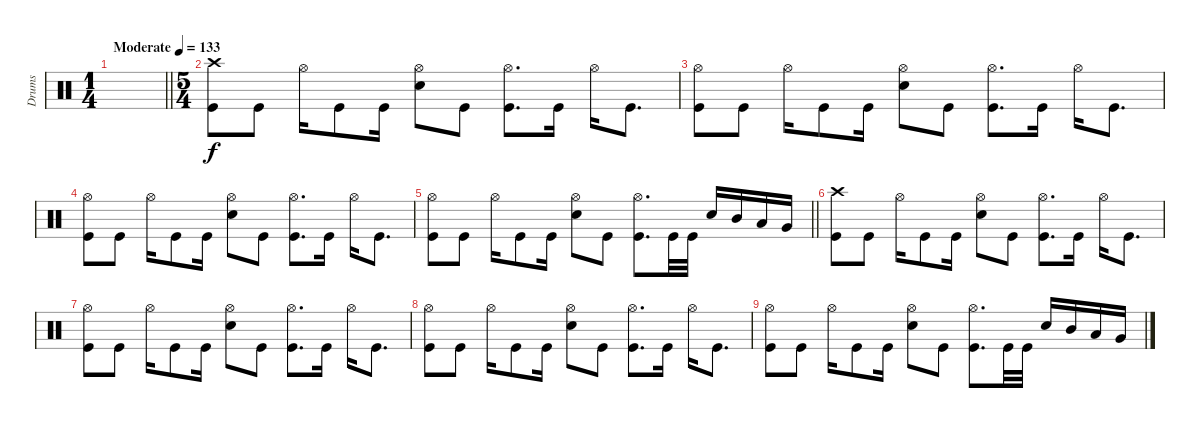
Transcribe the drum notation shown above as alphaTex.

\track ("Drums" "Drums") {instrument percussion}
\staff
\articulation defaults
\ts (1 4)
\tempo (133 "Moderate")
\clef neutral
\barLineRight lightlight
\ks c
|
\ts (5 4)
("Crash high (hit)" "Kick (hit)").8 "Kick (hit)".8 "Hi-Hat (open)".16 "Kick (hit)".8 "Kick (hit)".16 ("Hi-Hat (open)" "Electric Snare (hit)").8 "Kick (hit)".8 ("Hi-Hat (open)" "Kick (hit)").8{d} "Kick (hit)".16 "Hi-Hat (open)".16 "Kick (hit)".8{d} |
("Hi-Hat (open)" "Kick (hit)").8 "Kick (hit)".8 "Hi-Hat (open)".16 "Kick (hit)".8 "Kick (hit)".16 ("Hi-Hat (open)" "Electric Snare (hit)").8 "Kick (hit)".8 ("Hi-Hat (open)" "Kick (hit)").8{d} "Kick (hit)".16 "Hi-Hat (open)".16 "Kick (hit)".8{d} |
("Hi-Hat (open)" "Kick (hit)").8 "Kick (hit)".8 "Hi-Hat (open)".16 "Kick (hit)".8 "Kick (hit)".16 ("Hi-Hat (open)" "Electric Snare (hit)").8 "Kick (hit)".8 ("Hi-Hat (open)" "Kick (hit)").8{d} "Kick (hit)".16 "Hi-Hat (open)".16 "Kick (hit)".8{d} |
\barLineRight lightlight
("Hi-Hat (open)" "Kick (hit)").8 "Kick (hit)".8 "Hi-Hat (open)".16 "Kick (hit)".8 "Kick (hit)".16 ("Hi-Hat (open)" "Electric Snare (hit)").8 "Kick (hit)".8 ("Hi-Hat (open)" "Kick (hit)").8{d} "Kick (hit)".32 "Kick (hit)".32 "Electric Snare (hit)".16 "Mid Tom (hit)".16 "Low Tom (hit)".16 "Very Low Tom (hit)".16 |
("Crash high (hit)" "Kick (hit)").8 "Kick (hit)".8 "Hi-Hat (open)".16 "Kick (hit)".8 "Kick (hit)".16 ("Hi-Hat (open)" "Electric Snare (hit)").8 "Kick (hit)".8 ("Hi-Hat (open)" "Kick (hit)").8{d} "Kick (hit)".16 "Hi-Hat (open)".16 "Kick (hit)".8{d} |
("Hi-Hat (open)" "Kick (hit)").8 "Kick (hit)".8 "Hi-Hat (open)".16 "Kick (hit)".8 "Kick (hit)".16 ("Hi-Hat (open)" "Electric Snare (hit)").8 "Kick (hit)".8 ("Hi-Hat (open)" "Kick (hit)").8{d} "Kick (hit)".16 "Hi-Hat (open)".16 "Kick (hit)".8{d} |
("Hi-Hat (open)" "Kick (hit)").8 "Kick (hit)".8 "Hi-Hat (open)".16 "Kick (hit)".8 "Kick (hit)".16 ("Hi-Hat (open)" "Electric Snare (hit)").8 "Kick (hit)".8 ("Hi-Hat (open)" "Kick (hit)").8{d} "Kick (hit)".16 "Hi-Hat (open)".16 "Kick (hit)".8{d} |
("Hi-Hat (open)" "Kick (hit)").8 "Kick (hit)".8 "Hi-Hat (open)".16 "Kick (hit)".8 "Kick (hit)".16 ("Hi-Hat (open)" "Electric Snare (hit)").8 "Kick (hit)".8 ("Hi-Hat (open)" "Kick (hit)").8{d} "Kick (hit)".32 "Kick (hit)".32 "Electric Snare (hit)".16 "Mid Tom (hit)".16 "Low Tom (hit)".16 "Very Low Tom (hit)".16
